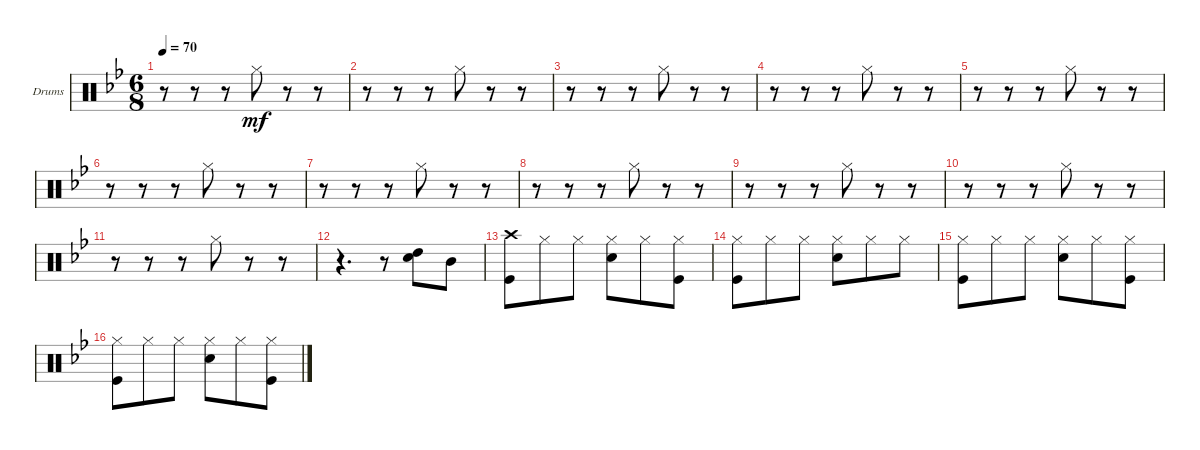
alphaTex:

\defaultSystemsLayout 4
\bracketExtendMode groupsimilarinstruments
\firstSystemTrackNameOrientation horizontal
\otherSystemsTrackNameOrientation horizontal
\track ("Drumkit" "Drums") {instrument percussion}
\staff {score}
\articulation defaults
\ts (6 8)
\tempo 70
\clef neutral
\ks gminor
r.8{dy mf} r.8 r.8 "Hi-Hat (closed)".8 r.8 r.8 |
\scale
0.333333 r.8 r.8 r.8 "Hi-Hat (closed)".8 r.8 r.8 |
\scale
0.333333 r.8 r.8 r.8 "Hi-Hat (closed)".8 r.8 r.8 |
\scale
0.333333 r.8 r.8 r.8 "Hi-Hat (closed)".8 r.8 r.8 |
\scale
0.333333 r.8 r.8 r.8 "Hi-Hat (closed)".8 r.8 r.8 |
\scale
0.333333 r.8 r.8 r.8 "Hi-Hat (closed)".8 r.8 r.8 |
\scale
0.333333 r.8 r.8 r.8 "Hi-Hat (closed)".8 r.8 r.8 |
\scale
0.333333 r.8 r.8 r.8 "Hi-Hat (closed)".8 r.8 r.8 |
r.8 r.8 r.8 "Hi-Hat (closed)".8 r.8 r.8 |
\scale
0.333333 r.8 r.8 r.8 "Hi-Hat (closed)".8 r.8 r.8 |
\scale
0.333333 r.8 r.8 r.8 "Hi-Hat (closed)".8 r.8 r.8 |
\scale
0.333333 r.4{d} r.8 ("Snare (hit) 2" "High Tom (hit)").8 "Mid Tom (hit)".8 |
\scale
0.333333 ("Kick (hit)" "Crash high (hit)").8 "Hi-Hat (closed)".8 "Hi-Hat (closed)".8 ("Hi-Hat (closed)" "Snare (hit) 2").8 "Hi-Hat (closed)".8 ("Hi-Hat (closed)" "Kick (hit)").8 |
\scale
0.333333 ("Hi-Hat (closed)" "Kick (hit)").8 "Hi-Hat (closed)".8 "Hi-Hat (closed)".8 ("Hi-Hat (closed)" "Snare (hit) 2").8 "Hi-Hat (closed)".8 "Hi-Hat (closed)".8 |
\scale
0.333333 ("Hi-Hat (closed)" "Kick (hit)").8 "Hi-Hat (closed)".8 "Hi-Hat (closed)".8 ("Hi-Hat (closed)" "Snare (hit) 2").8 "Hi-Hat (closed)".8 ("Hi-Hat (closed)" "Kick (hit)").8 |
\scale
0.333333 ("Hi-Hat (closed)" "Kick (hit)").8 "Hi-Hat (closed)".8 "Hi-Hat (closed)".8 ("Hi-Hat (closed)" "Snare (hit) 2").8 "Hi-Hat (closed)".8 ("Hi-Hat (closed)" "Kick (hit)").8
